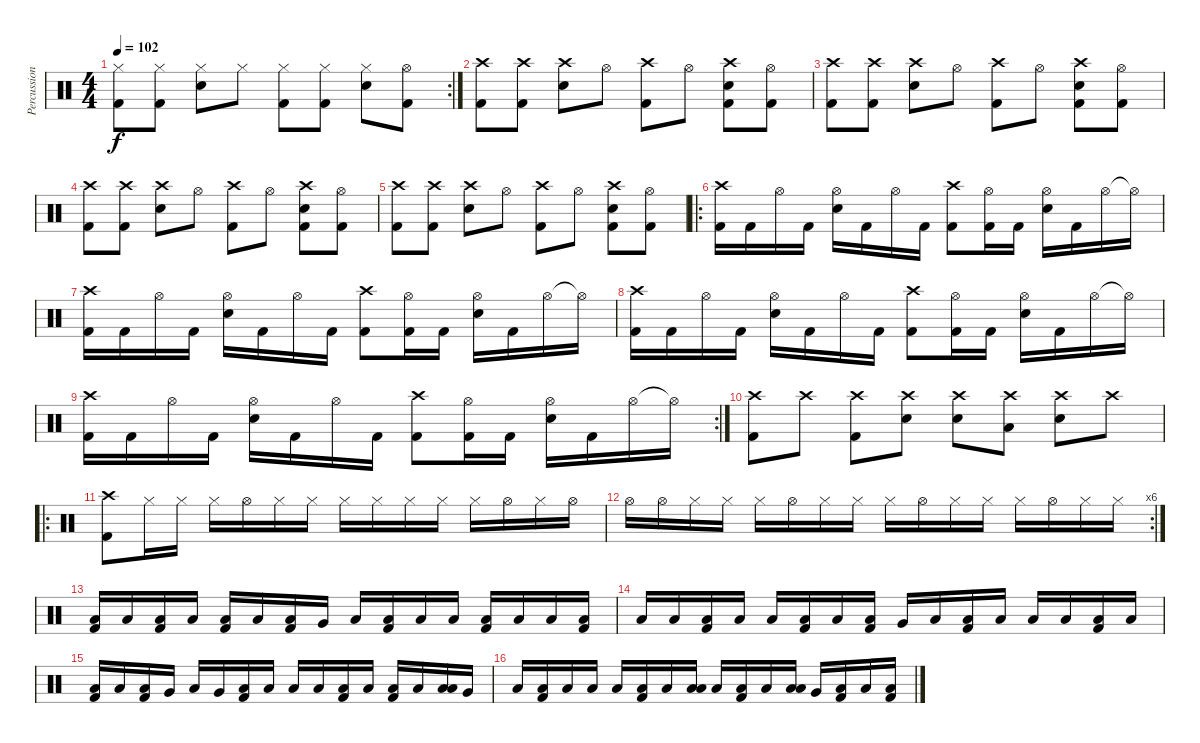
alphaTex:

\track ("Percussioni" "Percussion") {instrument percussion}
\staff {score}
\articulation defaults
\rc 2
\ts (4 4)
\tempo 102
\clef neutral
\ks c
("Hi-Hat (closed)" "Kick (hit) 2").8{dy f} ("Hi-Hat (closed)" "Kick (hit) 2").8 ("Hi-Hat (closed)" "Electric Snare (hit)").8 "Hi-Hat (closed)".8 ("Hi-Hat (closed)" "Kick (hit) 2").8 ("Hi-Hat (closed)" "Kick (hit) 2").8 ("Hi-Hat (closed)" "Electric Snare (hit)").8 ("Hi-Hat (open)" "Kick (hit) 2").8 |
("Crash high (hit)" "Kick (hit) 2").8 ("Crash high (hit)" "Kick (hit) 2").8 ("Crash high (hit)" "Electric Snare (hit)").8 "Hi-Hat (open)".8 ("Crash high (hit)" "Kick (hit) 2").8 "Hi-Hat (open)".8 ("Crash high (hit)" "Electric Snare (hit)" "Kick (hit) 2").8 ("Hi-Hat (open)" "Kick (hit) 2").8 |
("Crash high (hit)" "Kick (hit) 2").8 ("Crash high (hit)" "Kick (hit) 2").8 ("Crash high (hit)" "Electric Snare (hit)").8 "Hi-Hat (open)".8 ("Crash high (hit)" "Kick (hit) 2").8 "Hi-Hat (open)".8 ("Crash high (hit)" "Electric Snare (hit)" "Kick (hit) 2").8 ("Hi-Hat (open)" "Kick (hit) 2").8 |
("Crash high (hit)" "Kick (hit) 2").8 ("Crash high (hit)" "Kick (hit) 2").8 ("Crash high (hit)" "Electric Snare (hit)").8 "Hi-Hat (open)".8 ("Crash high (hit)" "Kick (hit) 2").8 "Hi-Hat (open)".8 ("Crash high (hit)" "Electric Snare (hit)" "Kick (hit) 2").8 ("Hi-Hat (open)" "Kick (hit) 2").8 |
("Crash high (hit)" "Kick (hit) 2").8 ("Crash high (hit)" "Kick (hit) 2").8 ("Crash high (hit)" "Electric Snare (hit)").8 "Hi-Hat (open)".8 ("Crash high (hit)" "Kick (hit) 2").8 "Hi-Hat (open)".8 ("Crash high (hit)" "Electric Snare (hit)" "Kick (hit) 2").8 ("Hi-Hat (open)" "Kick (hit) 2").8 |
\ro
("Crash high (hit)" "Kick (hit) 2").16 "Kick (hit) 2".16 "Hi-Hat (open)".16 "Kick (hit) 2".16 ("Hi-Hat (open)" "Electric Snare (hit)").16 "Kick (hit) 2".16 "Hi-Hat (open)".16 "Kick (hit) 2".16 ("Crash high (hit)" "Kick (hit) 2").8 ("Hi-Hat (open)" "Kick (hit) 2").16 "Kick (hit) 2".16 ("Hi-Hat (open)" "Electric Snare (hit)").16 "Kick (hit) 2".16 "Hi-Hat (open)".16 "Hi-Hat (open)"{t}.16 |
("Crash high (hit)" "Kick (hit) 2").16 "Kick (hit) 2".16 "Hi-Hat (open)".16 "Kick (hit) 2".16 ("Hi-Hat (open)" "Electric Snare (hit)").16 "Kick (hit) 2".16 "Hi-Hat (open)".16 "Kick (hit) 2".16 ("Crash high (hit)" "Kick (hit) 2").8 ("Hi-Hat (open)" "Kick (hit) 2").16 "Kick (hit) 2".16 ("Hi-Hat (open)" "Electric Snare (hit)").16 "Kick (hit) 2".16 "Hi-Hat (open)".16 "Hi-Hat (open)"{t}.16 |
("Crash high (hit)" "Kick (hit) 2").16 "Kick (hit) 2".16 "Hi-Hat (open)".16 "Kick (hit) 2".16 ("Hi-Hat (open)" "Electric Snare (hit)").16 "Kick (hit) 2".16 "Hi-Hat (open)".16 "Kick (hit) 2".16 ("Crash high (hit)" "Kick (hit) 2").8 ("Hi-Hat (open)" "Kick (hit) 2").16 "Kick (hit) 2".16 ("Hi-Hat (open)" "Electric Snare (hit)").16 "Kick (hit) 2".16 "Hi-Hat (open)".16 "Hi-Hat (open)"{t}.16 |
\rc 2
("Crash high (hit)" "Kick (hit) 2").16 "Kick (hit) 2".16 "Hi-Hat (open)".16 "Kick (hit) 2".16 ("Hi-Hat (open)" "Electric Snare (hit)").16 "Kick (hit) 2".16 "Hi-Hat (open)".16 "Kick (hit) 2".16 ("Crash high (hit)" "Kick (hit) 2").8 ("Hi-Hat (open)" "Kick (hit) 2").16 "Kick (hit) 2".16 ("Hi-Hat (open)" "Electric Snare (hit)").16 "Kick (hit) 2".16 "Hi-Hat (open)".16 "Hi-Hat (open)"{t}.16 |
("Crash high (hit)" "Kick (hit) 2").8 "Crash high (hit)".8 ("Crash high (hit)" "Kick (hit) 2").8 ("Crash high (hit)" "Electric Snare (hit)").8 ("Crash high (hit)" "Electric Snare (hit)").8 ("Crash high (hit)" "Low Tom (hit)").8 ("Crash high (hit)" "Electric Snare (hit)").8 "Crash high (hit)".8 |
\ro
("Crash high (hit)" "Kick (hit) 2").8 "Hi-Hat (closed)".16 "Hi-Hat (closed)".16 "Hi-Hat (closed)".16 "Hi-Hat (open)".16 "Hi-Hat (closed)".16 "Hi-Hat (closed)".16 "Hi-Hat (closed)".16 "Hi-Hat (closed)".16 "Hi-Hat (closed)".16 "Hi-Hat (closed)".16 "Hi-Hat (closed)".16 "Hi-Hat (open)".16 "Hi-Hat (closed)".16 "Hi-Hat (open)".16 |
\rc 6 "Hi-Hat (open)".16 "Hi-Hat (open)".16 "Hi-Hat (closed)".16 "Hi-Hat (closed)".16 "Hi-Hat (closed)".16 "Hi-Hat (open)".16 "Hi-Hat (closed)".16 "Hi-Hat (closed)".16 "Hi-Hat (closed)".16 "Hi-Hat (open)".16 "Hi-Hat (closed)".16 "Hi-Hat (closed)".16 "Hi-Hat (closed)".16 "Hi-Hat (open)".16 "Hi-Hat (closed)".16 "Hi-Hat (closed)".16
|
("Low Floor Tom (hit)" "Kick (hit) 2").16 "Low Floor Tom (hit)".16 ("Low Floor Tom (hit)" "Kick (hit) 2").16 "Low Floor Tom (hit)".16 ("Low Floor Tom (hit)" "Kick (hit) 2").16 "Low Floor Tom (hit)".16 ("Low Floor Tom (hit)" "Kick (hit) 2").16 "Very Low Tom (hit)".16 "Low Floor Tom (hit)".16 ("Low Floor Tom (hit)" "Kick (hit) 2").16 "Low Tom (hit)".16 "Low Floor Tom (hit)".16 ("Low Floor Tom (hit)" "Kick (hit) 2").16 "Low Floor Tom (hit)".16 "Low Floor Tom (hit)".16 ("Low Floor Tom (hit)" "Kick (hit) 2").16 |
"Low Floor Tom (hit)".16 "Low Floor Tom (hit)".16 ("Low Floor Tom (hit)" "Kick (hit) 2").16 "Low Floor Tom (hit)".16 "Low Floor Tom (hit)".16 ("Low Floor Tom (hit)" "Kick (hit) 2").16 "Low Floor Tom (hit)".16 ("Low Floor Tom (hit)" "Kick (hit) 2").16 "Very Low Tom (hit)".16 "Low Floor Tom (hit)".16 ("Low Floor Tom (hit)" "Kick (hit) 2").16 "Low Tom (hit)".16 "Low Floor Tom (hit)".16 "Low Tom (hit)".16 ("Low Floor Tom (hit)" "Kick (hit) 2").16 "Low Floor Tom (hit)".16 |
("Low Floor Tom (hit)" "Kick (hit) 2").16 "Low Floor Tom (hit)".16 ("Low Floor Tom (hit)" "Kick (hit) 2").16 "Very Low Tom (hit)".16 "Low Floor Tom (hit)".16 "Very Low Tom (hit)".16 ("Low Tom (hit)" "Kick (hit) 2").16 "Low Tom (hit)".16 "Low Tom (hit)".16 "Low Tom (hit)".16 ("Low Floor Tom (hit)" "Kick (hit) 2").16 "Low Floor Tom (hit)".16 ("Low Floor Tom (hit)" "Kick (hit) 2").16 "Low Floor Tom (hit)".16 ("Low Floor Tom (hit)" "Low Floor Tom (hit)").16 "Very Low Tom (hit)".16 |
"Low Floor Tom (hit)".16 ("Low Floor Tom (hit)" "Kick (hit) 2").16 "Low Tom (hit)".16 "Low Floor Tom (hit)".16 "Low Tom (hit)".16 ("Low Floor Tom (hit)" "Kick (hit) 2").16 "Low Floor Tom (hit)".16 ("Low Tom (hit)" "Low Floor Tom (hit)").16 "Low Tom (hit)".16 ("Low Tom (hit)" "Kick (hit) 2").16 "Low Tom (hit)".16 ("Low Tom (hit)" "Low Floor Tom (hit)").16 "Very Low Tom (hit)".16 ("Low Tom (hit)" "Kick (hit) 2").16 "Low Tom (hit)".16 ("Low Tom (hit)" "Kick (hit) 2").16
